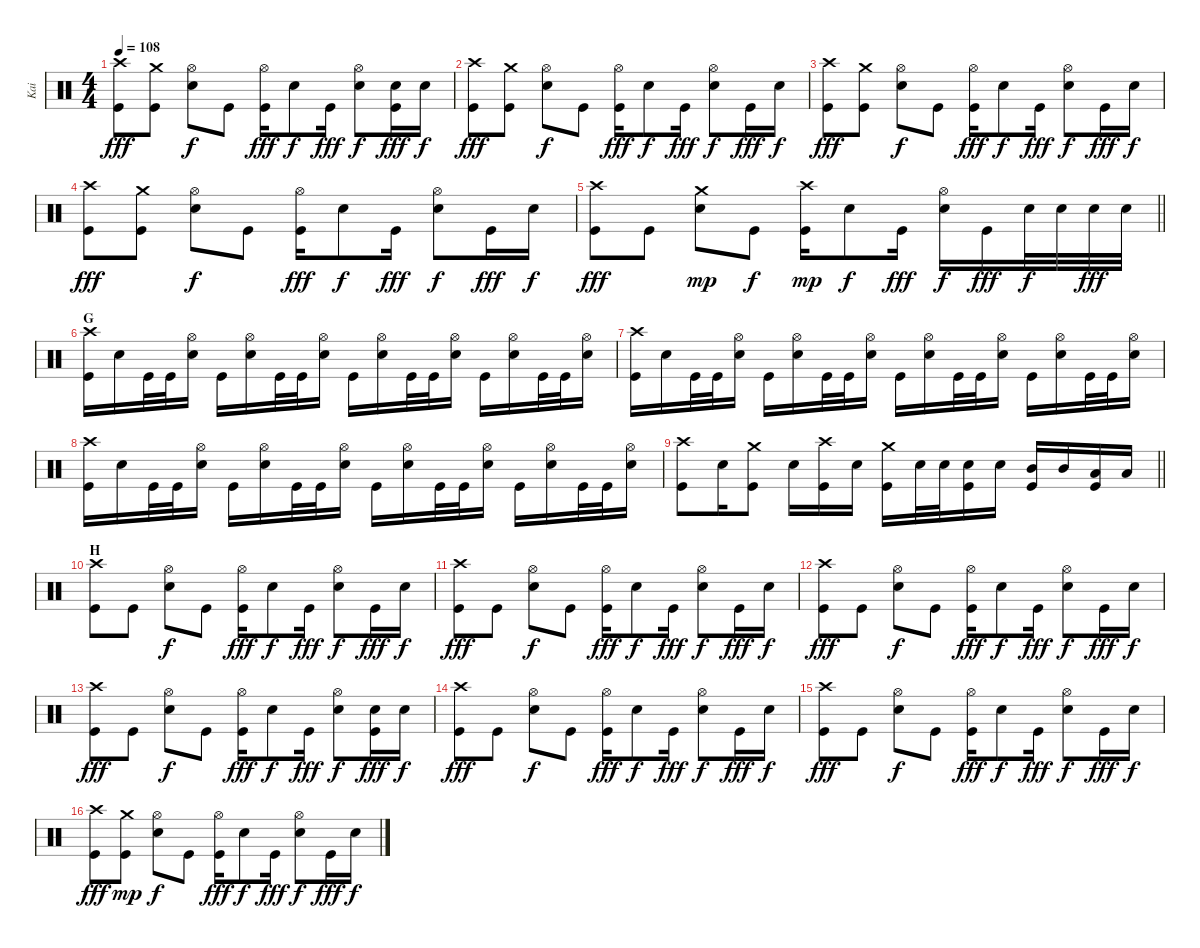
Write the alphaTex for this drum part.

\track ("Kai" "Kai") {instrument percussion}
\staff {score}
\articulation defaults
\ts (4 4)
\tempo 108
\clef neutral
\ks c
("Kick (hit)" "Crash high (hit)").8{dy fff} ("Kick (hit)" "Crash medium (hit)").8 ("Snare (hit) 2" "Hi-Hat (open)").8{dy f} "Kick (hit)".8 ("Kick (hit)" "Hi-Hat (open)").16{dy fff} "Snare (hit) 2".8{dy f} "Kick (hit)".16{dy fff} ("Snare (hit) 2" "Hi-Hat (open)").8{dy f} ("Kick (hit)" "Snare (hit) 2").16{dy fff} "Snare (hit) 2".16{dy f} |
("Kick (hit)" "Crash high (hit)").8{dy fff} ("Kick (hit)" "Crash medium (hit)").8 ("Snare (hit) 2" "Hi-Hat (open)").8{dy f} "Kick (hit)".8 ("Kick (hit)" "Hi-Hat (open)").16{dy fff} "Snare (hit) 2".8{dy f} "Kick (hit)".16{dy fff} ("Snare (hit) 2" "Hi-Hat (open)").8{dy f} "Kick (hit)".16{dy fff} "Snare (hit) 2".16{dy f} |
("Kick (hit)" "Crash high (hit)").8{dy fff} ("Kick (hit)" "Crash medium (hit)").8 ("Snare (hit) 2" "Hi-Hat (open)").8{dy f} "Kick (hit)".8 ("Kick (hit)" "Hi-Hat (open)").16{dy fff} "Snare (hit) 2".8{dy f} "Kick (hit)".16{dy fff} ("Snare (hit) 2" "Hi-Hat (open)").8{dy f} "Kick (hit)".16{dy fff} "Snare (hit) 2".16{dy f} |
("Kick (hit)" "Crash high (hit)").8{dy fff} ("Kick (hit)" "Crash medium (hit)").8 ("Snare (hit) 2" "Hi-Hat (open)").8{dy f} "Kick (hit)".8 ("Kick (hit)" "Hi-Hat (open)").16{dy fff} "Snare (hit) 2".8{dy f} "Kick (hit)".16{dy fff} ("Snare (hit) 2" "Hi-Hat (open)").8{dy f} "Kick (hit)".16{dy fff} "Snare (hit) 2".16{dy f} |
\barLineRight lightlight
("Kick (hit)" "Crash high (hit)").8{dy fff} "Kick (hit)".8 ("Snare (hit) 2" "Crash medium (hit)").8{dy mp} "Kick (hit)".8{dy f} ("Kick (hit)" "Crash high (hit)").16{dy mp} "Snare (hit) 2".8{dy f} "Kick (hit)".16{dy fff} ("Snare (hit) 2" "Hi-Hat (open)").16{dy f} "Kick (hit)".16{dy fff} "Snare (hit) 2".32{dy f} "Snare (hit) 2".32 "Snare (hit) 2".32{dy fff} "Snare (hit) 2".32 |
\section ("" "G")
("Kick (hit)" "Crash high (hit)").16 "Snare (hit) 2".16 "Kick (hit)".32 "Kick (hit)".32 ("Snare (hit) 2" "Hi-Hat (open)").16 "Kick (hit)".16 ("Snare (hit) 2" "Hi-Hat (open)").16 "Kick (hit)".32 "Kick (hit)".32 ("Snare (hit) 2" "Hi-Hat (open)").16 "Kick (hit)".16 ("Snare (hit) 2" "Hi-Hat (open)").16 "Kick (hit)".32 "Kick (hit)".32 ("Snare (hit) 2" "Hi-Hat (open)").16 "Kick (hit)".16 ("Snare (hit) 2" "Hi-Hat (open)").16 "Kick (hit)".32 "Kick (hit)".32 ("Snare (hit) 2" "Hi-Hat (open)").16 |
("Kick (hit)" "Crash high (hit)").16 "Snare (hit) 2".16 "Kick (hit)".32 "Kick (hit)".32 ("Snare (hit) 2" "Hi-Hat (open)").16 "Kick (hit)".16 ("Snare (hit) 2" "Hi-Hat (open)").16 "Kick (hit)".32 "Kick (hit)".32 ("Snare (hit) 2" "Hi-Hat (open)").16 "Kick (hit)".16 ("Snare (hit) 2" "Hi-Hat (open)").16 "Kick (hit)".32 "Kick (hit)".32 ("Snare (hit) 2" "Hi-Hat (open)").16 "Kick (hit)".16 ("Snare (hit) 2" "Hi-Hat (open)").16 "Kick (hit)".32 "Kick (hit)".32 ("Snare (hit) 2" "Hi-Hat (open)").16 |
("Kick (hit)" "Crash high (hit)").16 "Snare (hit) 2".16 "Kick (hit)".32 "Kick (hit)".32 ("Snare (hit) 2" "Hi-Hat (open)").16 "Kick (hit)".16 ("Snare (hit) 2" "Hi-Hat (open)").16 "Kick (hit)".32 "Kick (hit)".32 ("Snare (hit) 2" "Hi-Hat (open)").16 "Kick (hit)".16 ("Snare (hit) 2" "Hi-Hat (open)").16 "Kick (hit)".32 "Kick (hit)".32 ("Snare (hit) 2" "Hi-Hat (open)").16 "Kick (hit)".16 ("Snare (hit) 2" "Hi-Hat (open)").16 "Kick (hit)".32 "Kick (hit)".32 ("Snare (hit) 2" "Hi-Hat (open)").16 |
\barLineRight lightlight
("Kick (hit)" "Crash high (hit)").8 "Snare (hit) 2".16 ("Crash medium (hit)" "Kick (hit)").8 "Snare (hit) 2".16 ("Crash high (hit)" "Kick (hit)").16 "Snare (hit) 2".16 ("Crash medium (hit)" "Kick (hit)").16 "Snare (hit) 2".32 "Snare (hit) 2".32 ("Snare (hit) 2" "Kick (hit)").16 "Snare (hit) 2".16 ("Mid Tom (hit)" "Kick (hit)").16 "Mid Tom (hit)".16 ("Low Tom (hit)" "Kick (hit)").16 "Low Tom (hit)".16 |
\section ("" "H")
("Kick (hit)" "Crash high (hit)").8 "Kick (hit)".8 ("Snare (hit) 2" "Hi-Hat (open)").8{dy f} "Kick (hit)".8 ("Kick (hit)" "Hi-Hat (open)").16{dy fff} "Snare (hit) 2".8{dy f} "Kick (hit)".16{dy fff} ("Snare (hit) 2" "Hi-Hat (open)").8{dy f} "Kick (hit)".16{dy fff} "Snare (hit) 2".16{dy f} |
("Kick (hit)" "Crash high (hit)").8{dy fff} "Kick (hit)".8 ("Snare (hit) 2" "Hi-Hat (open)").8{dy f} "Kick (hit)".8 ("Kick (hit)" "Hi-Hat (open)").16{dy fff} "Snare (hit) 2".8{dy f} "Kick (hit)".16{dy fff} ("Snare (hit) 2" "Hi-Hat (open)").8{dy f} "Kick (hit)".16{dy fff} "Snare (hit) 2".16{dy f} |
("Kick (hit)" "Crash high (hit)").8{dy fff} "Kick (hit)".8 ("Snare (hit) 2" "Hi-Hat (open)").8{dy f} "Kick (hit)".8 ("Kick (hit)" "Hi-Hat (open)").16{dy fff} "Snare (hit) 2".8{dy f} "Kick (hit)".16{dy fff} ("Snare (hit) 2" "Hi-Hat (open)").8{dy f} "Kick (hit)".16{dy fff} "Snare (hit) 2".16{dy f} |
("Kick (hit)" "Crash high (hit)").8{dy fff} "Kick (hit)".8 ("Snare (hit) 2" "Hi-Hat (open)").8{dy f} "Kick (hit)".8 ("Kick (hit)" "Hi-Hat (open)").16{dy fff} "Snare (hit) 2".8{dy f} "Kick (hit)".16{dy fff} ("Snare (hit) 2" "Hi-Hat (open)").8{dy f} ("Kick (hit)" "Snare (hit) 2").16{dy fff} "Snare (hit) 2".16{dy f} |
("Kick (hit)" "Crash high (hit)").8{dy fff} "Kick (hit)".8 ("Snare (hit) 2" "Hi-Hat (open)").8{dy f} "Kick (hit)".8 ("Kick (hit)" "Hi-Hat (open)").16{dy fff} "Snare (hit) 2".8{dy f} "Kick (hit)".16{dy fff} ("Snare (hit) 2" "Hi-Hat (open)").8{dy f} "Kick (hit)".16{dy fff} "Snare (hit) 2".16{dy f} |
("Kick (hit)" "Crash high (hit)").8{dy fff} "Kick (hit)".8 ("Snare (hit) 2" "Hi-Hat (open)").8{dy f} "Kick (hit)".8 ("Kick (hit)" "Hi-Hat (open)").16{dy fff} "Snare (hit) 2".8{dy f} "Kick (hit)".16{dy fff} ("Snare (hit) 2" "Hi-Hat (open)").8{dy f} "Kick (hit)".16{dy fff} "Snare (hit) 2".16{dy f} |
("Kick (hit)" "Crash high (hit)").8{dy fff} ("Kick (hit)" "Crash medium (hit)").8{dy mp} ("Snare (hit) 2" "Hi-Hat (open)").8{dy f} "Kick (hit)".8 ("Kick (hit)" "Hi-Hat (open)").16{dy fff} "Snare (hit) 2".8{dy f} "Kick (hit)".16{dy fff} ("Snare (hit) 2" "Hi-Hat (open)").8{dy f} "Kick (hit)".16{dy fff} "Snare (hit) 2".16{dy f}
